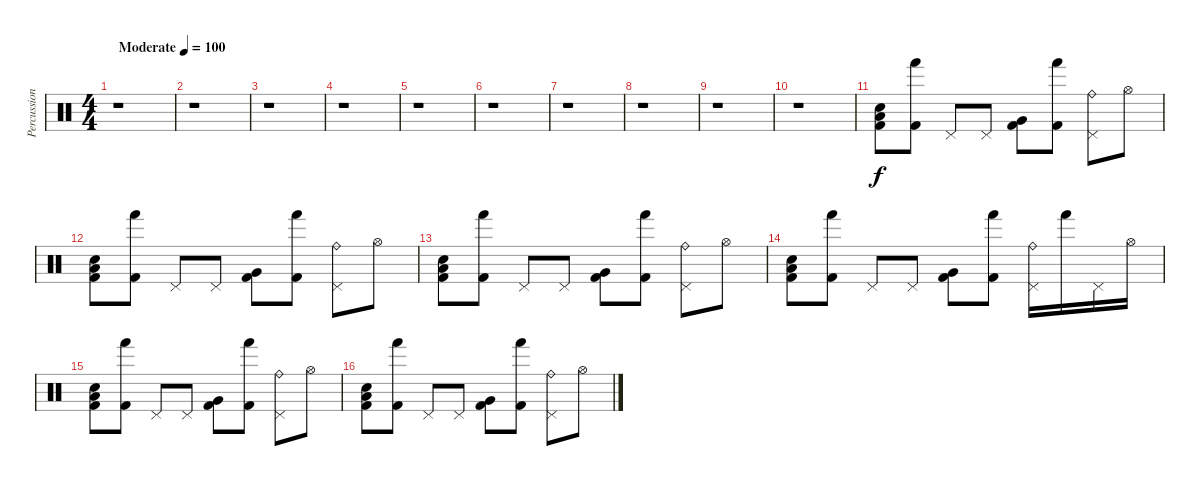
\track ("Percussion" "Percussion") {instrument percussion}
\staff {score}
\articulation defaults
\ts (4 4)
\tempo (100 "Moderate")
\clef neutral
\ks c
r.1{dy f} |
r.1 |
r.1 |
r.1 |
r.1 |
r.1 |
r.1 |
r.1 |
r.1 |
r.1 |
("Electric Snare (hit)" "Low Floor Tom (hit)" "Kick (hit) 2").8 ("Hand (hit)" "Kick (hit) 2").8 "Pedal Hi-Hat (hit)".8 "Pedal Hi-Hat (hit)".8 ("Very Low Tom (hit)" "Kick (hit) 2").8 ("Hand (hit)" "Kick (hit) 2").8 ("Pedal Hi-Hat (hit)" "Ride (bell)").8 "Hi-Hat (open)".8 |
("Electric Snare (hit)" "Low Floor Tom (hit)" "Kick (hit) 2").8 ("Hand (hit)" "Kick (hit) 2").8 "Pedal Hi-Hat (hit)".8 "Pedal Hi-Hat (hit)".8 ("Very Low Tom (hit)" "Kick (hit) 2").8 ("Hand (hit)" "Kick (hit) 2").8 ("Pedal Hi-Hat (hit)" "Ride (bell)").8 "Hi-Hat (open)".8 |
("Electric Snare (hit)" "Low Floor Tom (hit)" "Kick (hit) 2").8 ("Hand (hit)" "Kick (hit) 2").8 "Pedal Hi-Hat (hit)".8 "Pedal Hi-Hat (hit)".8 ("Very Low Tom (hit)" "Kick (hit) 2").8 ("Hand (hit)" "Kick (hit) 2").8 ("Pedal Hi-Hat (hit)" "Ride (bell)").8 "Hi-Hat (open)".8 |
("Electric Snare (hit)" "Low Floor Tom (hit)" "Kick (hit) 2").8 ("Hand (hit)" "Kick (hit) 2").8 "Pedal Hi-Hat (hit)".8 "Pedal Hi-Hat (hit)".8 ("Very Low Tom (hit)" "Kick (hit) 2").8 ("Hand (hit)" "Kick (hit) 2").8 ("Pedal Hi-Hat (hit)" "Ride (bell)").16 "Hand (hit)".16 "Pedal Hi-Hat (hit)".16 "Hi-Hat (open)".16 |
("Electric Snare (hit)" "Low Floor Tom (hit)" "Kick (hit) 2").8 ("Hand (hit)" "Kick (hit) 2").8 "Pedal Hi-Hat (hit)".8 "Pedal Hi-Hat (hit)".8 ("Very Low Tom (hit)" "Kick (hit) 2").8 ("Hand (hit)" "Kick (hit) 2").8 ("Pedal Hi-Hat (hit)" "Ride (bell)").8 "Hi-Hat (open)".8 |
("Electric Snare (hit)" "Low Floor Tom (hit)" "Kick (hit) 2").8 ("Hand (hit)" "Kick (hit) 2").8 "Pedal Hi-Hat (hit)".8 "Pedal Hi-Hat (hit)".8 ("Very Low Tom (hit)" "Kick (hit) 2").8 ("Hand (hit)" "Kick (hit) 2").8 ("Pedal Hi-Hat (hit)" "Ride (bell)").8 "Hi-Hat (open)".8
